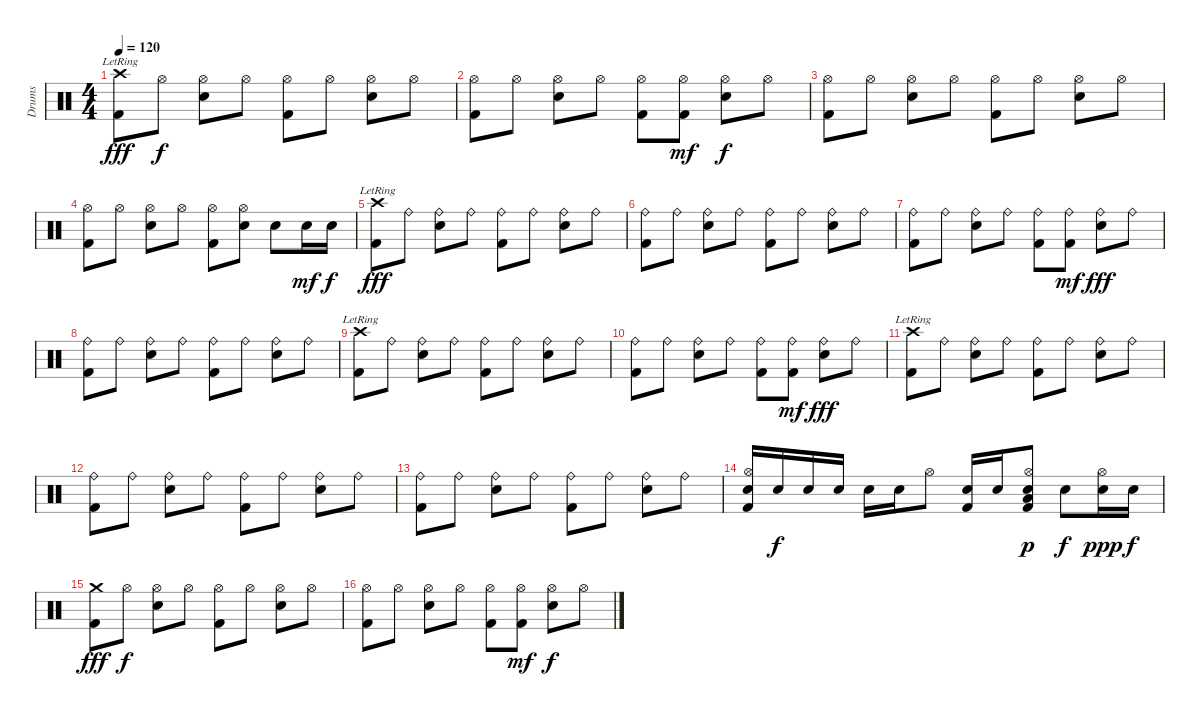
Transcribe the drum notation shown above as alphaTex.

\track ("Drums" "Drums") {instrument percussion}
\staff {score}
\articulation defaults
\ts (4 4)
\tempo 120
\clef neutral
\ks c
("Crash high (hit)"{lr} "Kick (hit) 2").8{dy fff} "Hi-Hat (open)".8{dy f} ("Hi-Hat (open)" "Electric Snare (hit)").8 "Hi-Hat (open)".8 ("Hi-Hat (open)" "Kick (hit) 2").8 "Hi-Hat (open)".8 ("Hi-Hat (open)" "Electric Snare (hit)").8 "Hi-Hat (open)".8 |
("Hi-Hat (open)" "Kick (hit) 2").8 "Hi-Hat (open)".8 ("Hi-Hat (open)" "Electric Snare (hit)").8 "Hi-Hat (open)".8 ("Hi-Hat (open)" "Kick (hit) 2").8 ("Hi-Hat (open)" "Kick (hit) 2").8{dy mf} ("Hi-Hat (open)" "Electric Snare (hit)").8{dy f} "Hi-Hat (open)".8 |
("Hi-Hat (open)" "Kick (hit) 2").8 "Hi-Hat (open)".8 ("Hi-Hat (open)" "Electric Snare (hit)").8 "Hi-Hat (open)".8 ("Hi-Hat (open)" "Kick (hit) 2").8 "Hi-Hat (open)".8 ("Hi-Hat (open)" "Electric Snare (hit)").8 "Hi-Hat (open)".8 |
("Hi-Hat (open)" "Kick (hit) 2").8 "Hi-Hat (open)".8 ("Hi-Hat (open)" "Electric Snare (hit)").8 "Hi-Hat (open)".8 ("Hi-Hat (open)" "Kick (hit) 2").8 ("Hi-Hat (open)" "Electric Snare (hit)").8 "Electric Snare (hit)".8 "Electric Snare (hit)".16{dy mf} "Electric Snare (hit)".16{dy f} |
("Crash high (hit)"{lr} "Kick (hit) 2").8{dy fff} "Ride (bell)".8 ("Ride (bell)" "Electric Snare (hit)").8 "Ride (bell)".8 ("Ride (bell)" "Kick (hit) 2").8 "Ride (bell)".8 ("Ride (bell)" "Electric Snare (hit)").8 "Ride (bell)".8 |
("Ride (bell)" "Kick (hit) 2").8 "Ride (bell)".8 ("Ride (bell)" "Electric Snare (hit)").8 "Ride (bell)".8 ("Ride (bell)" "Kick (hit) 2").8 "Ride (bell)".8 ("Ride (bell)" "Electric Snare (hit)").8 "Ride (bell)".8 |
("Ride (bell)" "Kick (hit) 2").8 "Ride (bell)".8 ("Ride (bell)" "Electric Snare (hit)").8 "Ride (bell)".8 ("Ride (bell)" "Kick (hit) 2").8 ("Ride (bell)" "Kick (hit) 2").8{dy mf} ("Ride (bell)" "Electric Snare (hit)").8{dy fff} "Ride (bell)".8 |
("Ride (bell)" "Kick (hit) 2").8 "Ride (bell)".8 ("Ride (bell)" "Electric Snare (hit)").8 "Ride (bell)".8 ("Ride (bell)" "Kick (hit) 2").8 "Ride (bell)".8 ("Ride (bell)" "Electric Snare (hit)").8 "Ride (bell)".8 |
("Crash high (hit)"{lr} "Kick (hit) 2").8 "Ride (bell)".8 ("Ride (bell)" "Electric Snare (hit)").8 "Ride (bell)".8 ("Ride (bell)" "Kick (hit) 2").8 "Ride (bell)".8 ("Ride (bell)" "Electric Snare (hit)").8 "Ride (bell)".8 |
("Ride (bell)" "Kick (hit) 2").8 "Ride (bell)".8 ("Ride (bell)" "Electric Snare (hit)").8 "Ride (bell)".8 ("Ride (bell)" "Kick (hit) 2").8 ("Ride (bell)" "Kick (hit) 2").8{dy mf} ("Ride (bell)" "Electric Snare (hit)").8{dy fff} "Ride (bell)".8 |
("Crash high (hit)"{lr} "Kick (hit) 2").8 "Ride (bell)".8 ("Ride (bell)" "Electric Snare (hit)").8 "Ride (bell)".8 ("Ride (bell)" "Kick (hit) 2").8 "Ride (bell)".8 ("Ride (bell)" "Electric Snare (hit)").8 "Ride (bell)".8 |
("Ride (bell)" "Kick (hit) 2").8 "Ride (bell)".8 ("Ride (bell)" "Electric Snare (hit)").8 "Ride (bell)".8 ("Ride (bell)" "Kick (hit) 2").8 "Ride (bell)".8 ("Ride (bell)" "Electric Snare (hit)").8 "Ride (bell)".8 |
("Ride (bell)" "Kick (hit) 2").8 "Ride (bell)".8 ("Ride (bell)" "Electric Snare (hit)").8 "Ride (bell)".8 ("Ride (bell)" "Kick (hit) 2").8 "Ride (bell)".8 ("Ride (bell)" "Electric Snare (hit)").8 "Ride (bell)".8 |
("Hi-Hat (open)" "Electric Snare (hit)" "Kick (hit) 2").16 "Electric Snare (hit)".16{dy f} "Electric Snare (hit)".16 "Electric Snare (hit)".16 "Electric Snare (hit)".16 "Electric Snare (hit)".16 "Hi-Hat (open)".8 ("Electric Snare (hit)" "Kick (hit) 2").16 "Electric Snare (hit)".16 ("Hi-Hat (open)" "Low Tom (hit)" "Electric Snare (hit)" "Kick (hit) 2").8{dy p} "Electric Snare (hit)".8{dy f} ("Hi-Hat (open)" "Electric Snare (hit)").16{dy ppp} "Electric Snare (hit)".16{dy f} |
("Crash medium (hit)" "Kick (hit) 2").8{dy fff} "Hi-Hat (open)".8{dy f} ("Hi-Hat (open)" "Electric Snare (hit)").8 "Hi-Hat (open)".8 ("Hi-Hat (open)" "Kick (hit) 2").8 "Hi-Hat (open)".8 ("Hi-Hat (open)" "Electric Snare (hit)").8 "Hi-Hat (open)".8 |
("Hi-Hat (open)" "Kick (hit) 2").8 "Hi-Hat (open)".8 ("Hi-Hat (open)" "Electric Snare (hit)").8 "Hi-Hat (open)".8 ("Hi-Hat (open)" "Kick (hit) 2").8 ("Hi-Hat (open)" "Kick (hit) 2").8{dy mf} ("Hi-Hat (open)" "Electric Snare (hit)").8{dy f} "Hi-Hat (open)".8
